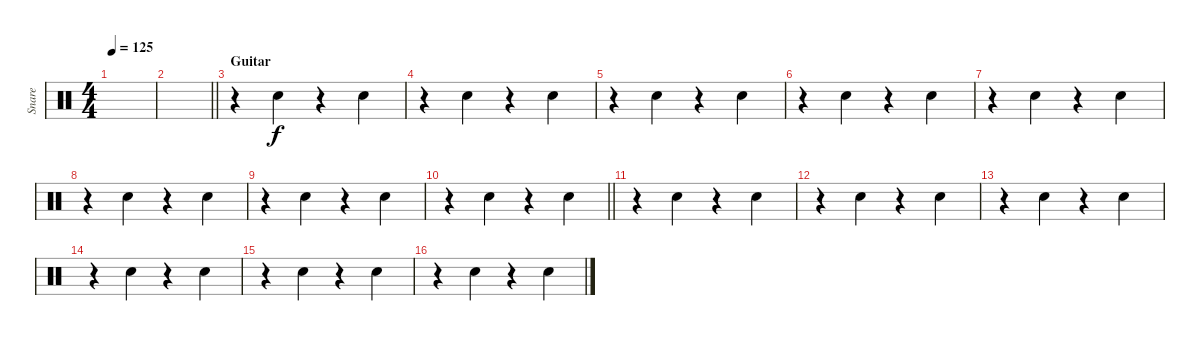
\track ("Snare" "Snare") {instrument percussion}
\staff {score}
\articulation defaults
\ts (4 4)
\tempo 125
\clef neutral
\ks c
|
\barLineRight lightlight
|
\section ("" "Guitar")
r.4 "Electric Snare (hit)".4 r.4 "Electric Snare (hit)".4 |
r.4 "Electric Snare (hit)".4 r.4 "Electric Snare (hit)".4 |
r.4 "Electric Snare (hit)".4 r.4 "Electric Snare (hit)".4 |
r.4 "Electric Snare (hit)".4 r.4 "Electric Snare (hit)".4 |
r.4 "Electric Snare (hit)".4 r.4 "Electric Snare (hit)".4 |
r.4 "Electric Snare (hit)".4 r.4 "Electric Snare (hit)".4 |
r.4 "Electric Snare (hit)".4 r.4 "Electric Snare (hit)".4 |
\barLineRight lightlight
r.4 "Electric Snare (hit)".4 r.4 "Electric Snare (hit)".4 |
\section ("" "")
r.4 "Electric Snare (hit)".4 r.4 "Electric Snare (hit)".4 |
r.4 "Electric Snare (hit)".4 r.4 "Electric Snare (hit)".4 |
r.4 "Electric Snare (hit)".4 r.4 "Electric Snare (hit)".4 |
r.4 "Electric Snare (hit)".4 r.4 "Electric Snare (hit)".4 |
r.4 "Electric Snare (hit)".4 r.4 "Electric Snare (hit)".4 |
r.4 "Electric Snare (hit)".4 r.4 "Electric Snare (hit)".4
